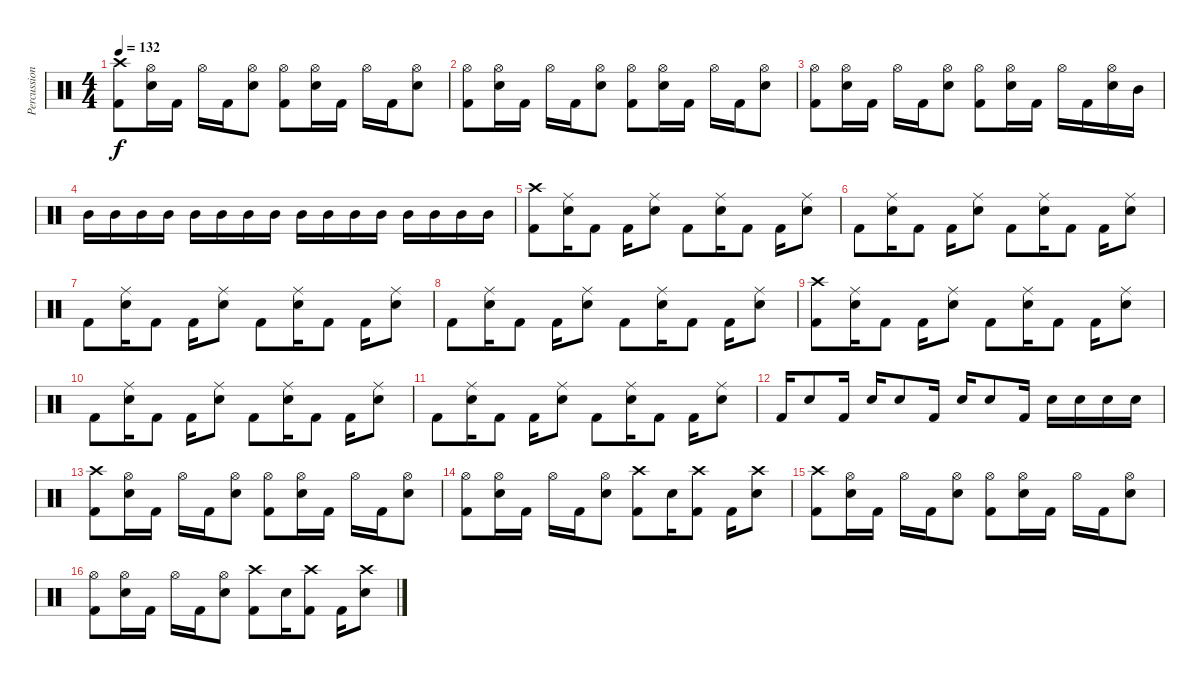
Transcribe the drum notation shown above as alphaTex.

\track ("Percussion" "Percussion") {instrument percussion}
\staff {score}
\articulation defaults
\ts (4 4)
\tempo 132
\clef neutral
\ks c
("Crash high (hit)" "Kick (hit) 2").8{dy f} ("Hi-Hat (open)" "Snare (hit) 2").16 "Kick (hit) 2".16 "Hi-Hat (open)".16 "Kick (hit) 2".16 ("Hi-Hat (open)" "Snare (hit) 2").8 ("Hi-Hat (open)" "Kick (hit) 2").8 ("Hi-Hat (open)" "Snare (hit) 2").16 "Kick (hit) 2".16 "Hi-Hat (open)".16 "Kick (hit) 2".16 ("Hi-Hat (open)" "Snare (hit) 2").8 |
("Hi-Hat (open)" "Kick (hit) 2").8 ("Hi-Hat (open)" "Snare (hit) 2").16 "Kick (hit) 2".16 "Hi-Hat (open)".16 "Kick (hit) 2".16 ("Hi-Hat (open)" "Snare (hit) 2").8 ("Hi-Hat (open)" "Kick (hit) 2").8 ("Hi-Hat (open)" "Snare (hit) 2").16 "Kick (hit) 2".16 "Hi-Hat (open)".16 "Kick (hit) 2".16 ("Hi-Hat (open)" "Snare (hit) 2").8 |
("Hi-Hat (open)" "Kick (hit) 2").8 ("Hi-Hat (open)" "Snare (hit) 2").16 "Kick (hit) 2".16 "Hi-Hat (open)".16 "Kick (hit) 2".16 ("Hi-Hat (open)" "Snare (hit) 2").8 ("Hi-Hat (open)" "Kick (hit) 2").8 ("Hi-Hat (open)" "Snare (hit) 2").16 "Kick (hit) 2".16 "Hi-Hat (open)".16 "Kick (hit) 2".16 ("Hi-Hat (open)" "Snare (hit) 2").16 "Mid Tom (hit)".16 |
"Mid Tom (hit)".16 "Mid Tom (hit)".16 "Mid Tom (hit)".16 "Mid Tom (hit)".16 "Mid Tom (hit)".16 "Mid Tom (hit)".16 "Mid Tom (hit)".16 "Mid Tom (hit)".16 "Mid Tom (hit)".16 "Mid Tom (hit)".16 "Mid Tom (hit)".16 "Mid Tom (hit)".16 "Mid Tom (hit)".16 "Mid Tom (hit)".16 "Mid Tom (hit)".16 "Mid Tom (hit)".16 |
("Crash high (hit)" "Kick (hit) 2").8 ("Ride (middle)" "Snare (hit) 2").16 "Kick (hit) 2".8 "Kick (hit) 2".16 ("Ride (middle)" "Snare (hit) 2").8 "Kick (hit) 2".8 ("Ride (middle)" "Snare (hit) 2").16 "Kick (hit) 2".8 "Kick (hit) 2".16 ("Ride (middle)" "Snare (hit) 2").8 |
"Kick (hit) 2".8 ("Ride (middle)" "Snare (hit) 2").16 "Kick (hit) 2".8 "Kick (hit) 2".16 ("Ride (middle)" "Snare (hit) 2").8 "Kick (hit) 2".8 ("Ride (middle)" "Snare (hit) 2").16 "Kick (hit) 2".8 "Kick (hit) 2".16 ("Ride (middle)" "Snare (hit) 2").8 |
"Kick (hit) 2".8 ("Ride (middle)" "Snare (hit) 2").16 "Kick (hit) 2".8 "Kick (hit) 2".16 ("Ride (middle)" "Snare (hit) 2").8 "Kick (hit) 2".8 ("Ride (middle)" "Snare (hit) 2").16 "Kick (hit) 2".8 "Kick (hit) 2".16 ("Ride (middle)" "Snare (hit) 2").8 |
"Kick (hit) 2".8 ("Ride (middle)" "Snare (hit) 2").16 "Kick (hit) 2".8 "Kick (hit) 2".16 ("Ride (middle)" "Snare (hit) 2").8 "Kick (hit) 2".8 ("Ride (middle)" "Snare (hit) 2").16 "Kick (hit) 2".8 "Kick (hit) 2".16 ("Ride (middle)" "Snare (hit) 2").8 |
("Crash high (hit)" "Kick (hit) 2").8 ("Ride (middle)" "Snare (hit) 2").16 "Kick (hit) 2".8 "Kick (hit) 2".16 ("Ride (middle)" "Snare (hit) 2").8 "Kick (hit) 2".8 ("Ride (middle)" "Snare (hit) 2").16 "Kick (hit) 2".8 "Kick (hit) 2".16 ("Ride (middle)" "Snare (hit) 2").8 |
"Kick (hit) 2".8 ("Ride (middle)" "Snare (hit) 2").16 "Kick (hit) 2".8 "Kick (hit) 2".16 ("Ride (middle)" "Snare (hit) 2").8 "Kick (hit) 2".8 ("Ride (middle)" "Snare (hit) 2").16 "Kick (hit) 2".8 "Kick (hit) 2".16 ("Ride (middle)" "Snare (hit) 2").8 |
"Kick (hit) 2".8 ("Ride (middle)" "Snare (hit) 2").16 "Kick (hit) 2".8 "Kick (hit) 2".16 ("Ride (middle)" "Snare (hit) 2").8 "Kick (hit) 2".8 ("Ride (middle)" "Snare (hit) 2").16 "Kick (hit) 2".8 "Kick (hit) 2".16 ("Ride (middle)" "Snare (hit) 2").8 |
"Kick (hit) 2".16 "Snare (hit) 2".8 "Kick (hit) 2".16 "Snare (hit) 2".16 "Snare (hit) 2".8 "Kick (hit) 2".16 "Snare (hit) 2".16 "Snare (hit) 2".8 "Kick (hit) 2".16 "Snare (hit) 2".16 "Snare (hit) 2".16 "Snare (hit) 2".16 "Snare (hit) 2".16 |
("Crash high (hit)" "Kick (hit) 2").8 ("Hi-Hat (open)" "Snare (hit) 2").16 "Kick (hit) 2".16 "Hi-Hat (open)".16 "Kick (hit) 2".16 ("Hi-Hat (open)" "Snare (hit) 2").8 ("Hi-Hat (open)" "Kick (hit) 2").8 ("Hi-Hat (open)" "Snare (hit) 2").16 "Kick (hit) 2".16 "Hi-Hat (open)".16 "Kick (hit) 2".16 ("Hi-Hat (open)" "Snare (hit) 2").8 |
("Hi-Hat (open)" "Kick (hit) 2").8 ("Hi-Hat (open)" "Snare (hit) 2").16 "Kick (hit) 2".16 "Hi-Hat (open)".16 "Kick (hit) 2".16 ("Hi-Hat (open)" "Snare (hit) 2").8 ("Crash high (hit)" "Kick (hit) 2").8 "Snare (hit) 2".16 ("Crash high (hit)" "Kick (hit) 2").8 "Kick (hit) 2".16 ("Crash high (hit)" "Snare (hit) 2").8 |
("Crash high (hit)" "Kick (hit) 2").8 ("Hi-Hat (open)" "Snare (hit) 2").16 "Kick (hit) 2".16 "Hi-Hat (open)".16 "Kick (hit) 2".16 ("Hi-Hat (open)" "Snare (hit) 2").8 ("Hi-Hat (open)" "Kick (hit) 2").8 ("Hi-Hat (open)" "Snare (hit) 2").16 "Kick (hit) 2".16 "Hi-Hat (open)".16 "Kick (hit) 2".16 ("Hi-Hat (open)" "Snare (hit) 2").8 |
("Hi-Hat (open)" "Kick (hit) 2").8 ("Hi-Hat (open)" "Snare (hit) 2").16 "Kick (hit) 2".16 "Hi-Hat (open)".16 "Kick (hit) 2".16 ("Hi-Hat (open)" "Snare (hit) 2").8 ("Crash high (hit)" "Kick (hit) 2").8 "Snare (hit) 2".16 ("Crash high (hit)" "Kick (hit) 2").8 "Kick (hit) 2".16 ("Crash high (hit)" "Snare (hit) 2").8
